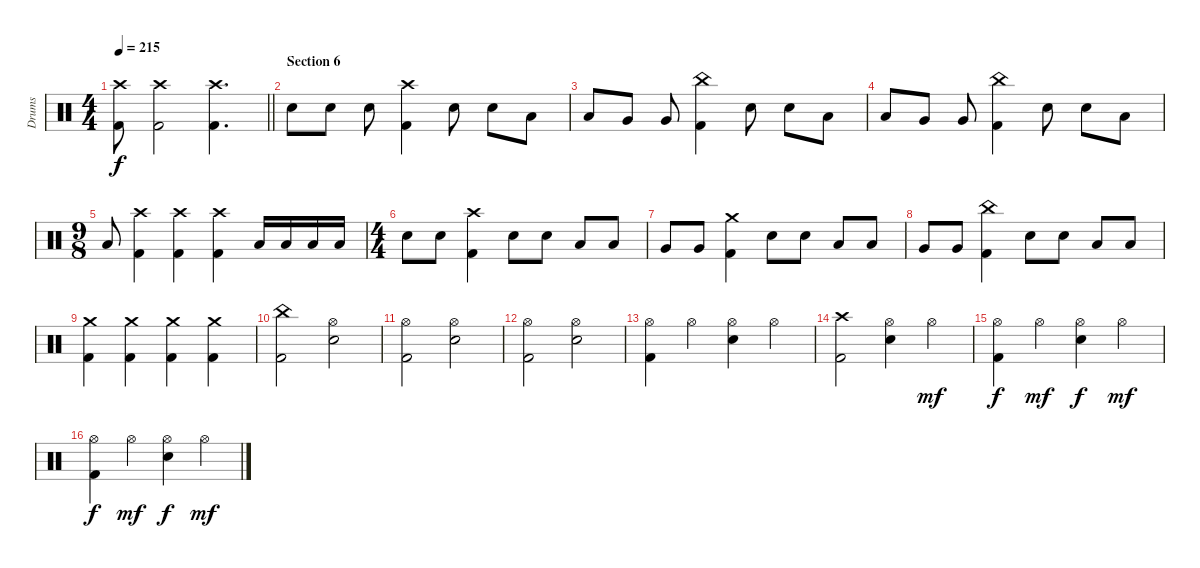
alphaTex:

\track ("Drums" "Drums") {instrument percussion}
\staff {score}
\articulation defaults
\ts (4 4)
\tempo 215
\clef neutral
\barLineRight lightlight
\ks c
("Crash high (hit)"{t} "Kick (hit) 2"{t}).8{dy f} ("Crash high (hit)" "Kick (hit) 2").2 ("Crash high (hit)" "Kick (hit) 2").4{d} |
\section ("" "Section 6")
"Snare (hit) 2".8 "Snare (hit) 2".8 "Snare (hit) 2".8 ("Crash high (hit)" "Kick (hit) 2").4 "Snare (hit) 2".8 "Snare (hit) 2".8 "Low Tom (hit)".8 |
"Low Tom (hit)".8 "Very Low Tom (hit)".8 "Very Low Tom (hit)".8 ("China (hit)" "Kick (hit) 2").4 "Snare (hit) 2".8 "Snare (hit) 2".8 "Low Tom (hit)".8 |
"Low Tom (hit)".8 "Very Low Tom (hit)".8 "Very Low Tom (hit)".8 ("China (hit)" "Kick (hit) 2").4 "Snare (hit) 2".8 "Snare (hit) 2".8 "Low Tom (hit)".8 |
\ts (9 8)
"Low Tom (hit)".8 ("Crash high (hit)" "Kick (hit) 2").4 ("Crash high (hit)" "Kick (hit) 2").4 ("Crash high (hit)" "Kick (hit) 2").4 "Low Tom (hit)".16 "Low Tom (hit)".16 "Low Tom (hit)".16 "Low Tom (hit)".16 |
\ts (4 4)
"Snare (hit) 2".8 "Snare (hit) 2".8 ("Crash high (hit)" "Kick (hit) 2").4 "Snare (hit) 2".8 "Snare (hit) 2".8 "Low Tom (hit)".8 "Low Tom (hit)".8 |
"Very Low Tom (hit)".8 "Very Low Tom (hit)".8 ("Crash medium (hit)" "Kick (hit) 2").4 "Snare (hit) 2".8 "Snare (hit) 2".8 "Low Tom (hit)".8 "Low Tom (hit)".8 |
"Very Low Tom (hit)".8 "Very Low Tom (hit)".8 ("China (hit)" "Kick (hit) 2").4 "Snare (hit) 2".8 "Snare (hit) 2".8 "Low Tom (hit)".8 "Low Tom (hit)".8 |
("Crash medium (hit)" "Kick (hit) 2").4 ("Crash medium (hit)" "Kick (hit) 2").4 ("Crash medium (hit)" "Kick (hit) 2").4 ("Crash medium (hit)" "Kick (hit) 2").4 |
("China (hit)" "Kick (hit) 2").2 ("Hi-Hat (open)" "Snare (hit) 2").2 |
("Hi-Hat (open)" "Kick (hit) 2").2 ("Hi-Hat (open)" "Snare (hit) 2").2 |
("Hi-Hat (open)" "Kick (hit) 2").2 ("Hi-Hat (open)" "Snare (hit) 2").2 |
("Hi-Hat (open)" "Kick (hit) 2").4 "Hi-Hat (open)".4 ("Hi-Hat (open)" "Snare (hit) 2").4 "Hi-Hat (open)".4 |
("Crash high (hit)" "Kick (hit) 2").2 ("Hi-Hat (open)" "Snare (hit) 2").4 "Hi-Hat (open)".4{dy mf} |
("Hi-Hat (open)" "Kick (hit) 2").4{dy f} "Hi-Hat (open)".4{dy mf} ("Hi-Hat (open)" "Snare (hit) 2").4{dy f} "Hi-Hat (open)".4{dy mf} |
("Hi-Hat (open)" "Kick (hit) 2").4{dy f} "Hi-Hat (open)".4{dy mf} ("Hi-Hat (open)" "Snare (hit) 2").4{dy f} "Hi-Hat (open)".4{dy mf}
